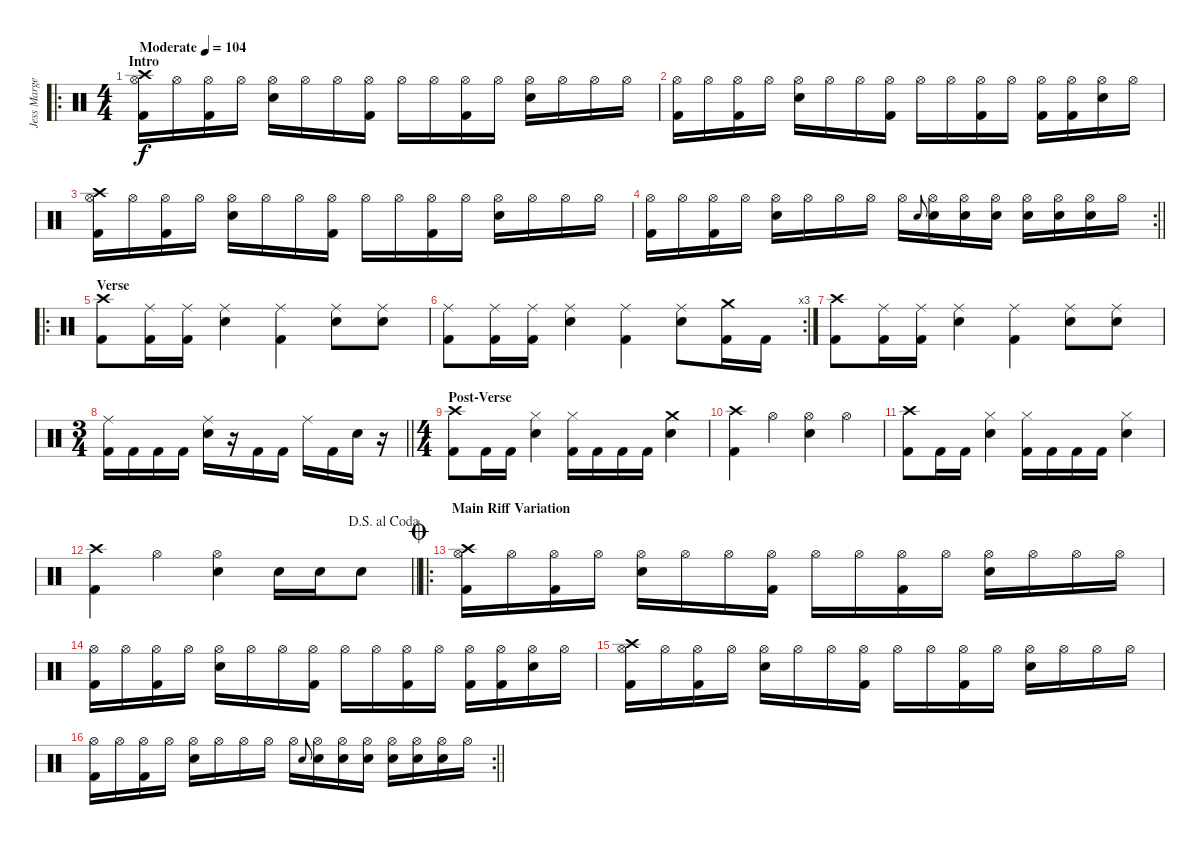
\track ("Jess Margera" "Jess Marge") {instrument percussion}
\staff {score}
\articulation defaults
\ro
\ts (4 4)
\section ("" "Intro")
\tempo (104 "Moderate")
\clef neutral
\ks c
("Crash high (hit)" "Hi-Hat (open)" "Kick (hit) 2").16{dy f} "Hi-Hat (open)".16 ("Hi-Hat (open)" "Kick (hit) 2").16 "Hi-Hat (open)".16 ("Hi-Hat (open)" "Electric Snare (hit)").16 "Hi-Hat (open)".16 "Hi-Hat (open)".16 ("Hi-Hat (open)" "Kick (hit) 2").16 "Hi-Hat (open)".16 "Hi-Hat (open)".16 ("Hi-Hat (open)" "Kick (hit) 2").16 "Hi-Hat (open)".16 ("Hi-Hat (open)" "Electric Snare (hit)").16 "Hi-Hat (open)".16 "Hi-Hat (open)".16 "Hi-Hat (open)".16 |
("Hi-Hat (open)" "Kick (hit) 2").16 "Hi-Hat (open)".16 ("Hi-Hat (open)" "Kick (hit) 2").16 "Hi-Hat (open)".16 ("Hi-Hat (open)" "Electric Snare (hit)").16 "Hi-Hat (open)".16 "Hi-Hat (open)".16 ("Hi-Hat (open)" "Kick (hit) 2").16 "Hi-Hat (open)".16 "Hi-Hat (open)".16 ("Hi-Hat (open)" "Kick (hit) 2").16 "Hi-Hat (open)".16 ("Hi-Hat (open)" "Kick (hit) 2").16 ("Hi-Hat (open)" "Kick (hit) 2").16 ("Hi-Hat (open)" "Electric Snare (hit)").16 "Hi-Hat (open)".16 |
("Crash high (hit)" "Hi-Hat (open)" "Kick (hit) 2").16 "Hi-Hat (open)".16 ("Hi-Hat (open)" "Kick (hit) 2").16 "Hi-Hat (open)".16 ("Hi-Hat (open)" "Electric Snare (hit)").16 "Hi-Hat (open)".16 "Hi-Hat (open)".16 ("Hi-Hat (open)" "Kick (hit) 2").16 "Hi-Hat (open)".16 "Hi-Hat (open)".16 ("Hi-Hat (open)" "Kick (hit) 2").16 "Hi-Hat (open)".16 ("Hi-Hat (open)" "Electric Snare (hit)").16 "Hi-Hat (open)".16 "Hi-Hat (open)".16 "Hi-Hat (open)".16 |
\rc 2
\barLineRight lightlight
("Hi-Hat (open)" "Kick (hit) 2").16 "Hi-Hat (open)".16 ("Hi-Hat (open)" "Kick (hit) 2").16 "Hi-Hat (open)".16 ("Hi-Hat (open)" "Electric Snare (hit)").16 "Hi-Hat (open)".16 "Hi-Hat (open)".16 "Hi-Hat (open)".16 "Hi-Hat (open)".16 "Electric Snare (hit)".8{gr onbeat} ("Hi-Hat (open)" "Electric Snare (hit)").16 ("Hi-Hat (open)" "Electric Snare (hit)").16 ("Hi-Hat (open)" "Electric Snare (hit)").16 ("Hi-Hat (open)" "Electric Snare (hit)").16 ("Hi-Hat (open)" "Electric Snare (hit)").16 ("Hi-Hat (open)" "Electric Snare (hit)").16 "Hi-Hat (open)".16 |
\ro
\section ("" "Verse")
("Crash high (hit)" "Kick (hit) 2").8 ("Ride (middle)" "Kick (hit) 2").16 ("Ride (middle)" "Kick (hit) 2").16 ("Ride (middle)" "Electric Snare (hit)").4 ("Ride (middle)" "Kick (hit) 2").4 ("Ride (middle)" "Electric Snare (hit)").8 ("Ride (middle)" "Electric Snare (hit)").8 |
\rc 3
("Ride (middle)" "Kick (hit) 2").8 ("Ride (middle)" "Kick (hit) 2").16 ("Ride (middle)" "Kick (hit) 2").16 ("Ride (middle)" "Electric Snare (hit)").4 ("Ride (middle)" "Kick (hit) 2").4 ("Ride (middle)" "Electric Snare (hit)").8 ("Crash medium (hit)" "Kick (hit) 2").16 "Kick (hit) 2".16 |
("Crash high (hit)" "Kick (hit) 2").8 ("Ride (middle)" "Kick (hit) 2").16 ("Ride (middle)" "Kick (hit) 2").16 ("Ride (middle)" "Electric Snare (hit)").4 ("Ride (middle)" "Kick (hit) 2").4 ("Ride (middle)" "Electric Snare (hit)").8 ("Ride (middle)" "Electric Snare (hit)").8 |
\ts (3 4)
\barLineRight lightlight
("Ride (middle)" "Kick (hit) 2").16 "Kick (hit) 2".16 "Kick (hit) 2".16 "Kick (hit) 2".16 ("Ride (middle)" "Electric Snare (hit)").16 r.16 "Kick (hit) 2".16 "Kick (hit) 2".16 "Ride (middle)".16 "Kick (hit) 2".16 "Electric Snare (hit)".16 r.16 |
\ts (4 4)
\section ("" "Post-Verse")
("Crash high (hit)" "Kick (hit) 2").8 "Kick (hit) 2".16 "Kick (hit) 2".16 ("Hi-Hat (closed)" "Electric Snare (hit)").4 ("Hi-Hat (closed)" "Kick (hit) 2").16 "Kick (hit) 2".16 "Kick (hit) 2".16 "Kick (hit) 2".16 ("Crash medium (hit)" "Electric Snare (hit)").4 |
("Crash high (hit)" "Kick (hit) 2").4 "Hi-Hat (open)".4 ("Hi-Hat (open)" "Electric Snare (hit)").4 "Hi-Hat (open)".4 |
("Crash high (hit)" "Kick (hit) 2").8 "Kick (hit) 2".16 "Kick (hit) 2".16 ("Hi-Hat (closed)" "Electric Snare (hit)").4 ("Hi-Hat (closed)" "Kick (hit) 2").16 "Kick (hit) 2".16 "Kick (hit) 2".16 "Kick (hit) 2".16 ("Hi-Hat (closed)" "Electric Snare (hit)").4 |
\jump dalsegnoalcoda
\barLineRight lightlight
("Crash high (hit)" "Kick (hit) 2").4 "Hi-Hat (open)".4 ("Hi-Hat (open)" "Electric Snare (hit)").4 "Electric Snare (hit)".16 "Electric Snare (hit)".16 "Electric Snare (hit)".8 |
\ro
\section ("" "Main Riff Variation")
\jump coda
("Crash high (hit)" "Hi-Hat (open)" "Kick (hit) 2").16 "Hi-Hat (open)".16 ("Hi-Hat (open)" "Kick (hit) 2").16 "Hi-Hat (open)".16 ("Hi-Hat (open)" "Electric Snare (hit)").16 "Hi-Hat (open)".16 "Hi-Hat (open)".16 ("Hi-Hat (open)" "Kick (hit) 2").16 "Hi-Hat (open)".16 "Hi-Hat (open)".16 ("Hi-Hat (open)" "Kick (hit) 2").16 "Hi-Hat (open)".16 ("Hi-Hat (open)" "Electric Snare (hit)").16 "Hi-Hat (open)".16 "Hi-Hat (open)".16 "Hi-Hat (open)".16 |
("Hi-Hat (open)" "Kick (hit) 2").16 "Hi-Hat (open)".16 ("Hi-Hat (open)" "Kick (hit) 2").16 "Hi-Hat (open)".16 ("Hi-Hat (open)" "Electric Snare (hit)").16 "Hi-Hat (open)".16 "Hi-Hat (open)".16 ("Hi-Hat (open)" "Kick (hit) 2").16 "Hi-Hat (open)".16 "Hi-Hat (open)".16 ("Hi-Hat (open)" "Kick (hit) 2").16 "Hi-Hat (open)".16 ("Hi-Hat (open)" "Kick (hit) 2").16 ("Hi-Hat (open)" "Kick (hit) 2").16 ("Hi-Hat (open)" "Electric Snare (hit)").16 "Hi-Hat (open)".16 |
("Crash high (hit)" "Hi-Hat (open)" "Kick (hit) 2").16 "Hi-Hat (open)".16 ("Hi-Hat (open)" "Kick (hit) 2").16 "Hi-Hat (open)".16 ("Hi-Hat (open)" "Electric Snare (hit)").16 "Hi-Hat (open)".16 "Hi-Hat (open)".16 ("Hi-Hat (open)" "Kick (hit) 2").16 "Hi-Hat (open)".16 "Hi-Hat (open)".16 ("Hi-Hat (open)" "Kick (hit) 2").16 "Hi-Hat (open)".16 ("Hi-Hat (open)" "Electric Snare (hit)").16 "Hi-Hat (open)".16 "Hi-Hat (open)".16 "Hi-Hat (open)".16 |
\rc 2
\barLineRight lightlight
("Hi-Hat (open)" "Kick (hit) 2").16 "Hi-Hat (open)".16 ("Hi-Hat (open)" "Kick (hit) 2").16 "Hi-Hat (open)".16 ("Hi-Hat (open)" "Electric Snare (hit)").16 "Hi-Hat (open)".16 "Hi-Hat (open)".16 "Hi-Hat (open)".16 "Hi-Hat (open)".16 "Electric Snare (hit)".8{gr onbeat} ("Hi-Hat (open)" "Electric Snare (hit)").16 ("Hi-Hat (open)" "Electric Snare (hit)").16 ("Hi-Hat (open)" "Electric Snare (hit)").16 ("Hi-Hat (open)" "Electric Snare (hit)").16 ("Hi-Hat (open)" "Electric Snare (hit)").16 ("Hi-Hat (open)" "Electric Snare (hit)").16 "Hi-Hat (open)".16
